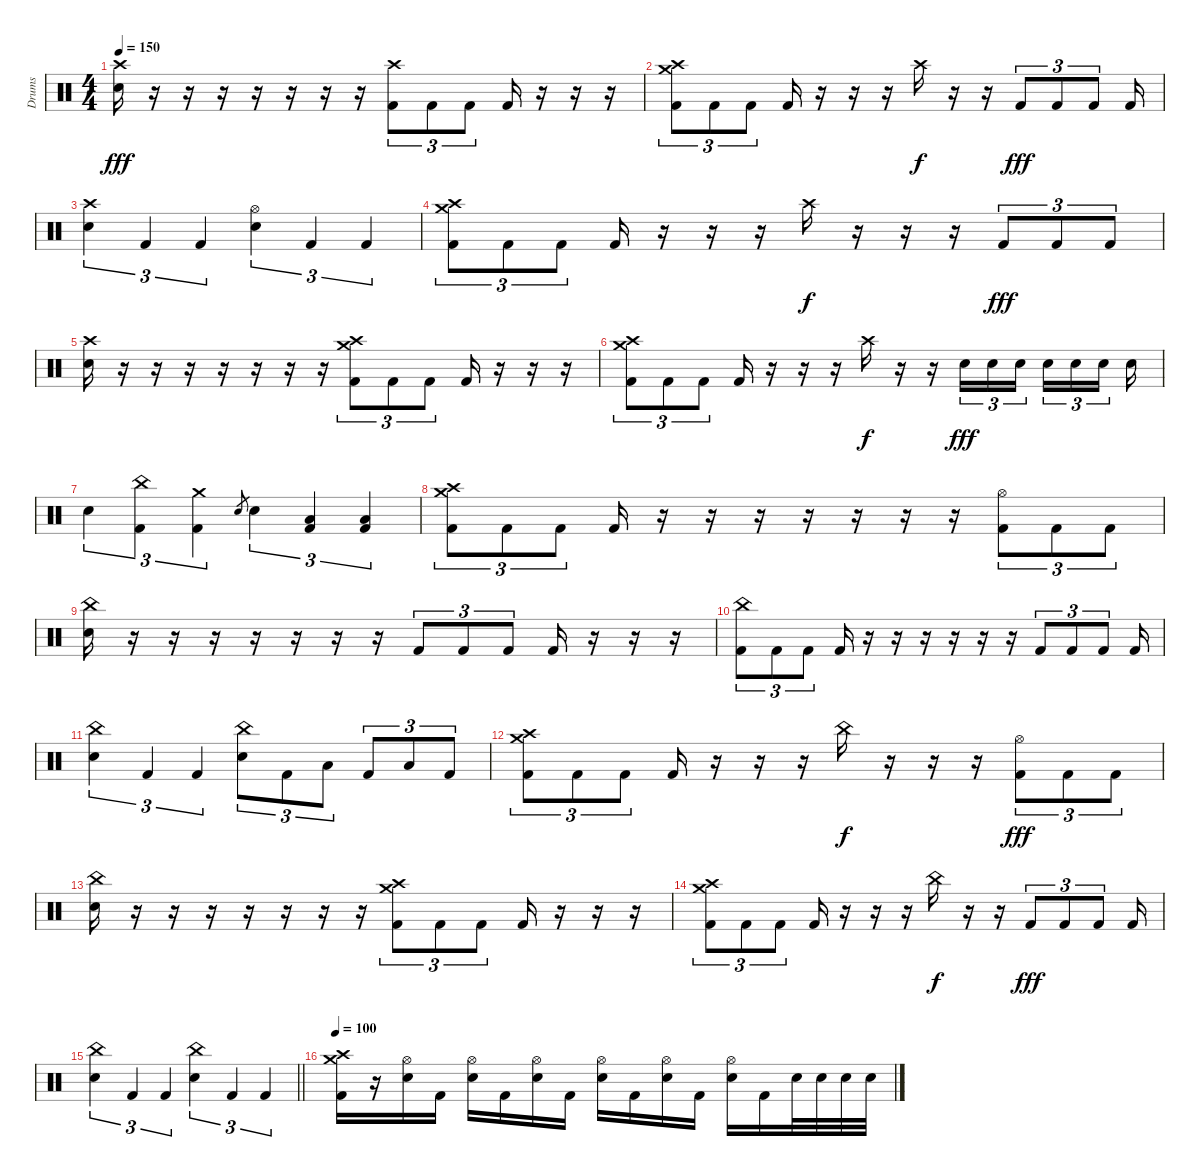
\track ("Drums" "Drums") {instrument percussion}
\staff {score}
\articulation defaults
\ts (4 4)
\tempo 150
\clef neutral
\ks c
("Crash high (hit)" "Electric Snare (hit)").16{dy fff} r.16 r.16 r.16 r.16 r.16 r.16 r.16 ("Crash high (hit)" "Kick (hit) 2").8{tu (3 2)} "Kick (hit) 2".8{tu (3 2)} "Kick (hit) 2".8{tu (3 2)} "Kick (hit) 2".16 r.16 r.16 r.16 |
("Crash high (hit)" "Crash medium (hit)" "Kick (hit) 2").8{tu (3 2)} "Kick (hit) 2".8{tu (3 2)} "Kick (hit) 2".8{tu (3 2)} "Kick (hit) 2".16 r.16 r.16 r.16 "Crash high (hit)".16{dy f} r.16 r.16 "Kick (hit) 2".8{tu (3 2) dy fff} "Kick (hit) 2".8{tu (3 2)} "Kick (hit) 2".8{tu (3 2)} "Kick (hit) 2".16 |
("Crash high (hit)" "Electric Snare (hit)").4{tu (3 2)} "Kick (hit) 2".4{tu (3 2)} "Kick (hit) 2".4{tu (3 2)} ("Hi-Hat (open)" "Electric Snare (hit)").4{tu (3 2)} "Kick (hit) 2".4{tu (3 2)} "Kick (hit) 2".4{tu (3 2)} |
("Crash high (hit)" "Crash medium (hit)" "Kick (hit) 2").8{tu (3 2)} "Kick (hit) 2".8{tu (3 2)} "Kick (hit) 2".8{tu (3 2)} "Kick (hit) 2".16 r.16 r.16 r.16 "Crash high (hit)".16{dy f} r.16 r.16 r.16 "Kick (hit) 2".8{tu (3 2) dy fff} "Kick (hit) 2".8{tu (3 2)} "Kick (hit) 2".8{tu (3 2)} |
("Crash high (hit)" "Electric Snare (hit)").16 r.16 r.16 r.16 r.16 r.16 r.16 r.16 ("Crash high (hit)" "Crash medium (hit)" "Kick (hit) 2").8{tu (3 2)} "Kick (hit) 2".8{tu (3 2)} "Kick (hit) 2".8{tu (3 2)} "Kick (hit) 2".16 r.16 r.16 r.16 |
("Crash high (hit)" "Crash medium (hit)" "Kick (hit) 2").8{tu (3 2)} "Kick (hit) 2".8{tu (3 2)} "Kick (hit) 2".8{tu (3 2)} "Kick (hit) 2".16 r.16 r.16 r.16 "Crash high (hit)".16{dy f} r.16 r.16 "Electric Snare (hit)".16{tu (3 2) dy fff} "Electric Snare (hit)".16{tu (3 2)} "Electric Snare (hit)".16{tu (3 2) beam splitsecondary} "Electric Snare (hit)".16{tu (3 2)} "Electric Snare (hit)".16{tu (3 2)} "Electric Snare (hit)".16{tu (3 2) beam splitsecondary} "Electric Snare (hit)".16 |
"Electric Snare (hit)".4{tu (3 2)} ("China (hit)" "Kick (hit) 2").4{tu (3 2)} ("Crash medium (hit)" "Kick (hit) 2").4{tu (3 2)} "Electric Snare (hit)".8{gr} "Electric Snare (hit)".4{tu (3 2)} ("Low Tom (hit)" "Kick (hit) 2").4{tu (3 2)} ("Low Tom (hit)" "Kick (hit) 2").4{tu (3 2)} |
("Crash high (hit)" "Crash medium (hit)" "Kick (hit) 2").8{tu (3 2)} "Kick (hit) 2".8{tu (3 2)} "Kick (hit) 2".8{tu (3 2)} "Kick (hit) 2".16 r.16 r.16 r.16 r.16 r.16 r.16 r.16 ("Hi-Hat (open)" "Kick (hit) 2").8{tu (3 2)} "Kick (hit) 2".8{tu (3 2)} "Kick (hit) 2".8{tu (3 2)} |
("China (hit)" "Electric Snare (hit)").16 r.16 r.16 r.16 r.16 r.16 r.16 r.16 "Kick (hit) 2".8{tu (3 2)} "Kick (hit) 2".8{tu (3 2)} "Kick (hit) 2".8{tu (3 2)} "Kick (hit) 2".16 r.16 r.16 r.16 |
("China (hit)" "Kick (hit) 2").8{tu (3 2)} "Kick (hit) 2".8{tu (3 2)} "Kick (hit) 2".8{tu (3 2)} "Kick (hit) 2".16 r.16 r.16 r.16 r.16 r.16 r.16 "Kick (hit) 2".8{tu (3 2)} "Kick (hit) 2".8{tu (3 2)} "Kick (hit) 2".8{tu (3 2)} "Kick (hit) 2".16 |
("China (hit)" "Electric Snare (hit)").4{tu (3 2)} "Kick (hit) 2".4{tu (3 2)} "Kick (hit) 2".4{tu (3 2)} ("China (hit)" "Electric Snare (hit)").8{tu (3 2)} "Kick (hit) 2".8{tu (3 2)} "Low Tom (hit)".8{tu (3 2)} "Kick (hit) 2".8{tu (3 2)} "Low Floor Tom (hit)".8{tu (3 2)} "Kick (hit) 2".8{tu (3 2)} |
("Crash high (hit)" "Crash medium (hit)" "Kick (hit) 2").8{tu (3 2)} "Kick (hit) 2".8{tu (3 2)} "Kick (hit) 2".8{tu (3 2)} "Kick (hit) 2".16 r.16 r.16 r.16 "China (hit)".16{dy f} r.16 r.16 r.16 ("Hi-Hat (open)" "Kick (hit) 2").8{tu (3 2) dy fff} "Kick (hit) 2".8{tu (3 2)} "Kick (hit) 2".8{tu (3 2)} |
("China (hit)" "Electric Snare (hit)").16 r.16 r.16 r.16 r.16 r.16 r.16 r.16 ("Crash high (hit)" "Crash medium (hit)" "Kick (hit) 2").8{tu (3 2)} "Kick (hit) 2".8{tu (3 2)} "Kick (hit) 2".8{tu (3 2)} "Kick (hit) 2".16 r.16 r.16 r.16 |
("Crash medium (hit)" "Crash high (hit)" "Kick (hit) 2").8{tu (3 2)} "Kick (hit) 2".8{tu (3 2)} "Kick (hit) 2".8{tu (3 2)} "Kick (hit) 2".16 r.16 r.16 r.16 "China (hit)".16{dy f} r.16 r.16 "Kick (hit) 2".8{tu (3 2) dy fff} "Kick (hit) 2".8{tu (3 2)} "Kick (hit) 2".8{tu (3 2)} "Kick (hit) 2".16 |
\barLineRight lightlight
("China (hit)" "Electric Snare (hit)").4{tu (3 2)} "Kick (hit) 2".4{tu (3 2)} "Kick (hit) 2".4{tu (3 2)} ("China (hit)" "Electric Snare (hit)").4{tu (3 2)} "Kick (hit) 2".4{tu (3 2)} "Kick (hit) 2".4{tu (3 2)} |
\section ("" "")
\tempo 100
("Crash high (hit)" "Crash medium (hit)" "Kick (hit) 2").16 r.16 ("Hi-Hat (open)" "Electric Snare (hit)").16 "Kick (hit) 2".16 ("Hi-Hat (open)" "Electric Snare (hit)").16 "Kick (hit) 2".16 ("Hi-Hat (open)" "Electric Snare (hit)").16 "Kick (hit) 2".16 ("Hi-Hat (open)" "Electric Snare (hit)").16 "Kick (hit) 2".16 ("Hi-Hat (open)" "Electric Snare (hit)").16 "Kick (hit) 2".16 ("Hi-Hat (open)" "Electric Snare (hit)").16 "Kick (hit) 2".16 "Electric Snare (hit)".32 "Electric Snare (hit)".32 "Electric Snare (hit)".32 "Electric Snare (hit)".32
